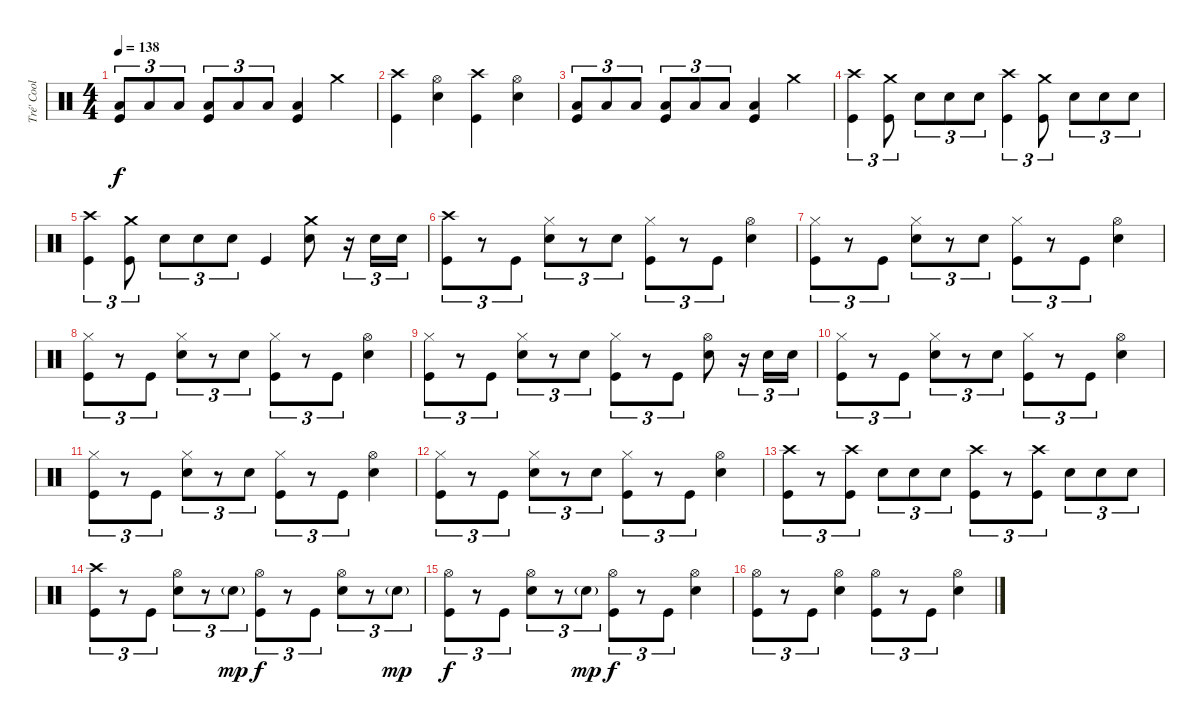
\track ("Tré' Cool" "Tré' Cool") {instrument percussion}
\staff {score}
\articulation defaults
\ts (4 4)
\tempo 138
\clef neutral
\ks c
("Low Floor Tom (hit)" "Kick (hit)").8{tu (3 2) dy f} "Low Floor Tom (hit)".8{tu (3 2)} "Low Floor Tom (hit)".8{tu (3 2)} ("Low Floor Tom (hit)" "Kick (hit)").8{tu (3 2)} "Low Floor Tom (hit)".8{tu (3 2)} "Low Floor Tom (hit)".8{tu (3 2)} ("Low Floor Tom (hit)" "Kick (hit)").4 "Crash medium (hit)".4 |
("Crash high (hit)" "Kick (hit)").4 ("Hi-Hat (open)" "Electric Snare (hit)").4 ("Crash high (hit)" "Kick (hit)").4 ("Hi-Hat (open)" "Electric Snare (hit)").4 |
("Low Floor Tom (hit)" "Kick (hit)").8{tu (3 2)} "Low Floor Tom (hit)".8{tu (3 2)} "Low Floor Tom (hit)".8{tu (3 2)} ("Low Floor Tom (hit)" "Kick (hit)").8{tu (3 2)} "Low Floor Tom (hit)".8{tu (3 2)} "Low Floor Tom (hit)".8{tu (3 2)} ("Low Floor Tom (hit)" "Kick (hit)").4 "Crash medium (hit)".4 |
("Crash high (hit)" "Kick (hit)").4{tu (3 2)} ("Crash medium (hit)" "Kick (hit)").8{tu (3 2)} "Electric Snare (hit)".8{tu (3 2)} "Electric Snare (hit)".8{tu (3 2)} "Electric Snare (hit)".8{tu (3 2)} ("Crash high (hit)" "Kick (hit)").4{tu (3 2)} ("Crash medium (hit)" "Kick (hit)").8{tu (3 2)} "Electric Snare (hit)".8{tu (3 2)} "Electric Snare (hit)".8{tu (3 2)} "Electric Snare (hit)".8{tu (3 2)} |
("Crash high (hit)" "Kick (hit)").4{tu (3 2)} ("Crash medium (hit)" "Kick (hit)").8{tu (3 2)} "Electric Snare (hit)".8{tu (3 2)} "Electric Snare (hit)".8{tu (3 2)} "Electric Snare (hit)".8{tu (3 2)} "Kick (hit)".4 ("Crash medium (hit)" "Electric Snare (hit)").8 r.16{tu (3 2)} "Electric Snare (hit)".16{tu (3 2)} "Electric Snare (hit)".16{tu (3 2)} |
("Crash high (hit)" "Kick (hit)").8{tu (3 2)} r.8{tu (3 2)} "Kick (hit)".8{tu (3 2)} ("Hi-Hat (closed)" "Electric Snare (hit)").8{tu (3 2)} r.8{tu (3 2)} "Electric Snare (hit)".8{tu (3 2)} ("Hi-Hat (closed)" "Kick (hit)").8{tu (3 2)} r.8{tu (3 2)} "Kick (hit)".8{tu (3 2)} ("Hi-Hat (open)" "Electric Snare (hit)").4 |
("Hi-Hat (closed)" "Kick (hit)").8{tu (3 2)} r.8{tu (3 2)} "Kick (hit)".8{tu (3 2)} ("Hi-Hat (closed)" "Electric Snare (hit)").8{tu (3 2)} r.8{tu (3 2)} "Electric Snare (hit)".8{tu (3 2)} ("Hi-Hat (closed)" "Kick (hit)").8{tu (3 2)} r.8{tu (3 2)} "Kick (hit)".8{tu (3 2)} ("Hi-Hat (open)" "Electric Snare (hit)").4 |
("Hi-Hat (closed)" "Kick (hit)").8{tu (3 2)} r.8{tu (3 2)} "Kick (hit)".8{tu (3 2)} ("Hi-Hat (closed)" "Electric Snare (hit)").8{tu (3 2)} r.8{tu (3 2)} "Electric Snare (hit)".8{tu (3 2)} ("Hi-Hat (closed)" "Kick (hit)").8{tu (3 2)} r.8{tu (3 2)} "Kick (hit)".8{tu (3 2)} ("Hi-Hat (open)" "Electric Snare (hit)").4 |
("Hi-Hat (closed)" "Kick (hit)").8{tu (3 2)} r.8{tu (3 2)} "Kick (hit)".8{tu (3 2)} ("Hi-Hat (closed)" "Electric Snare (hit)").8{tu (3 2)} r.8{tu (3 2)} "Electric Snare (hit)".8{tu (3 2)} ("Hi-Hat (closed)" "Kick (hit)").8{tu (3 2)} r.8{tu (3 2)} "Kick (hit)".8{tu (3 2)} ("Hi-Hat (open)" "Electric Snare (hit)").8 r.16{tu (3 2)} "Electric Snare (hit)".16{tu (3 2)} "Electric Snare (hit)".16{tu (3 2)} |
("Hi-Hat (closed)" "Kick (hit)").8{tu (3 2)} r.8{tu (3 2)} "Kick (hit)".8{tu (3 2)} ("Hi-Hat (closed)" "Electric Snare (hit)").8{tu (3 2)} r.8{tu (3 2)} "Electric Snare (hit)".8{tu (3 2)} ("Hi-Hat (closed)" "Kick (hit)").8{tu (3 2)} r.8{tu (3 2)} "Kick (hit)".8{tu (3 2)} ("Hi-Hat (open)" "Electric Snare (hit)").4 |
("Hi-Hat (closed)" "Kick (hit)").8{tu (3 2)} r.8{tu (3 2)} "Kick (hit)".8{tu (3 2)} ("Hi-Hat (closed)" "Electric Snare (hit)").8{tu (3 2)} r.8{tu (3 2)} "Electric Snare (hit)".8{tu (3 2)} ("Hi-Hat (closed)" "Kick (hit)").8{tu (3 2)} r.8{tu (3 2)} "Kick (hit)".8{tu (3 2)} ("Hi-Hat (open)" "Electric Snare (hit)").4 |
("Hi-Hat (closed)" "Kick (hit)").8{tu (3 2)} r.8{tu (3 2)} "Kick (hit)".8{tu (3 2)} ("Hi-Hat (closed)" "Electric Snare (hit)").8{tu (3 2)} r.8{tu (3 2)} "Electric Snare (hit)".8{tu (3 2)} ("Hi-Hat (closed)" "Kick (hit)").8{tu (3 2)} r.8{tu (3 2)} "Kick (hit)".8{tu (3 2)} ("Hi-Hat (open)" "Electric Snare (hit)").4 |
("Crash high (hit)" "Kick (hit)").8{tu (3 2)} r.8{tu (3 2)} ("Crash high (hit)" "Kick (hit)").8{tu (3 2)} "Electric Snare (hit)".8{tu (3 2)} "Electric Snare (hit)".8{tu (3 2)} "Electric Snare (hit)".8{tu (3 2)} ("Crash high (hit)" "Kick (hit)").8{tu (3 2)} r.8{tu (3 2)} ("Crash high (hit)" "Kick (hit)").8{tu (3 2)} "Electric Snare (hit)".8{tu (3 2)} "Electric Snare (hit)".8{tu (3 2)} "Electric Snare (hit)".8{tu (3 2)} |
("Crash high (hit)" "Kick (hit)").8{tu (3 2)} r.8{tu (3 2)} "Kick (hit)".8{tu (3 2)} ("Hi-Hat (open)" "Electric Snare (hit)").8{tu (3 2)} r.8{tu (3 2)} "Electric Snare (hit)"{g}.8{tu (3 2) dy mp} ("Hi-Hat (open)" "Kick (hit)").8{tu (3 2) dy f} r.8{tu (3 2)} "Kick (hit)".8{tu (3 2)} ("Hi-Hat (open)" "Electric Snare (hit)").8{tu (3 2)} r.8{tu (3 2)} "Electric Snare (hit)"{g}.8{tu (3 2) dy mp} |
("Hi-Hat (open)" "Kick (hit)").8{tu (3 2) dy f} r.8{tu (3 2)} "Kick (hit)".8{tu (3 2)} ("Hi-Hat (open)" "Electric Snare (hit)").8{tu (3 2)} r.8{tu (3 2)} "Electric Snare (hit)"{g}.8{tu (3 2) dy mp} ("Hi-Hat (open)" "Kick (hit)").8{tu (3 2) dy f} r.8{tu (3 2)} "Kick (hit)".8{tu (3 2)} ("Hi-Hat (open)" "Electric Snare (hit)").4 |
("Hi-Hat (open)" "Kick (hit)").8{tu (3 2)} r.8{tu (3 2)} "Kick (hit)".8{tu (3 2)} ("Hi-Hat (open)" "Electric Snare (hit)").4 ("Hi-Hat (open)" "Kick (hit)").8{tu (3 2)} r.8{tu (3 2)} "Kick (hit)".8{tu (3 2)} ("Hi-Hat (open)" "Electric Snare (hit)").4
